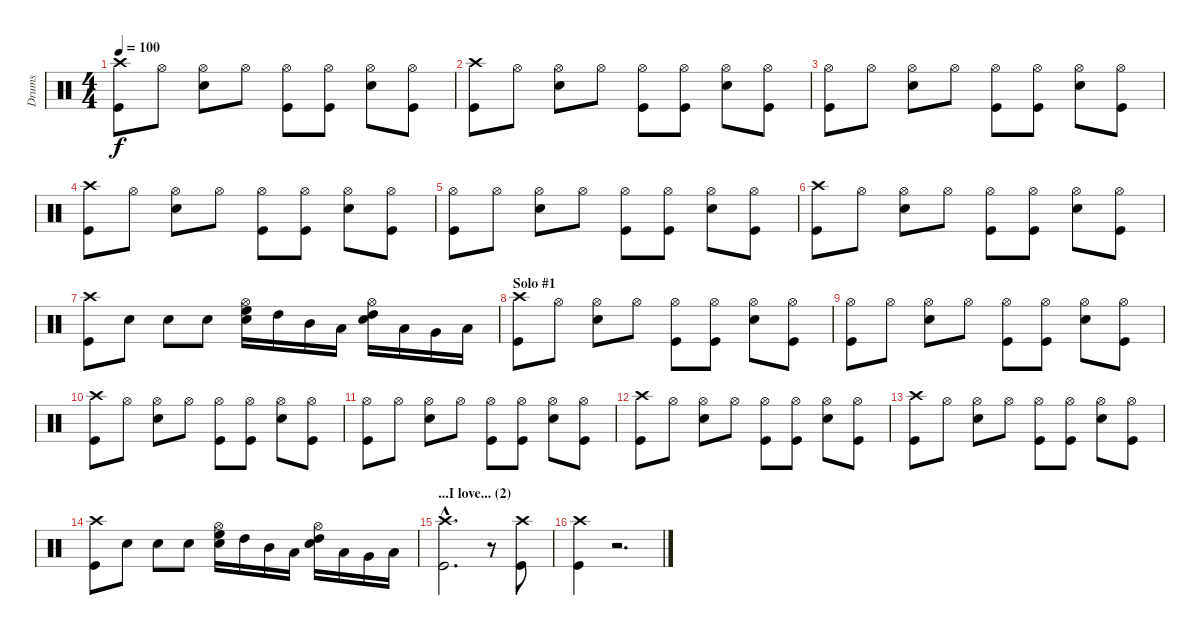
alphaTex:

\track ("Drums" "Drums") {instrument percussion}
\staff {score}
\articulation defaults
\ts (4 4)
\tempo 100
\clef neutral
\ks c
("Crash high (hit)" "Kick (hit)").8{dy f} "Hi-Hat (open)".8 ("Hi-Hat (open)" "Snare (hit) 2").8 "Hi-Hat (open)".8 ("Hi-Hat (open)" "Kick (hit)").8 ("Hi-Hat (open)" "Kick (hit)").8 ("Hi-Hat (open)" "Snare (hit) 2").8 ("Hi-Hat (open)" "Kick (hit)").8 |
("Crash high (hit)" "Kick (hit)").8 "Hi-Hat (open)".8 ("Hi-Hat (open)" "Snare (hit) 2").8 "Hi-Hat (open)".8 ("Hi-Hat (open)" "Kick (hit)").8 ("Hi-Hat (open)" "Kick (hit)").8 ("Hi-Hat (open)" "Snare (hit) 2").8 ("Hi-Hat (open)" "Kick (hit)").8 |
("Hi-Hat (open)" "Kick (hit)").8 "Hi-Hat (open)".8 ("Hi-Hat (open)" "Snare (hit) 2").8 "Hi-Hat (open)".8 ("Hi-Hat (open)" "Kick (hit)").8 ("Hi-Hat (open)" "Kick (hit)").8 ("Hi-Hat (open)" "Snare (hit) 2").8 ("Hi-Hat (open)" "Kick (hit)").8 |
("Crash high (hit)" "Kick (hit)").8 "Hi-Hat (open)".8 ("Hi-Hat (open)" "Snare (hit) 2").8 "Hi-Hat (open)".8 ("Hi-Hat (open)" "Kick (hit)").8 ("Hi-Hat (open)" "Kick (hit)").8 ("Hi-Hat (open)" "Snare (hit) 2").8 ("Hi-Hat (open)" "Kick (hit)").8 |
("Hi-Hat (open)" "Kick (hit)").8 "Hi-Hat (open)".8 ("Hi-Hat (open)" "Snare (hit) 2").8 "Hi-Hat (open)".8 ("Hi-Hat (open)" "Kick (hit)").8 ("Hi-Hat (open)" "Kick (hit)").8 ("Hi-Hat (open)" "Snare (hit) 2").8 ("Hi-Hat (open)" "Kick (hit)").8 |
("Crash high (hit)" "Kick (hit)").8 "Hi-Hat (open)".8 ("Hi-Hat (open)" "Snare (hit) 2").8 "Hi-Hat (open)".8 ("Hi-Hat (open)" "Kick (hit)").8 ("Hi-Hat (open)" "Kick (hit)").8 ("Hi-Hat (open)" "Snare (hit) 2").8 ("Hi-Hat (open)" "Kick (hit)").8 |
("Crash high (hit)" "Kick (hit)").8 "Snare (hit) 2".8 "Snare (hit) 2".8 "Snare (hit) 2".8 ("Hi-Hat (open)" "Snare (hit) 2" "High Floor Tom (hit)").16 "High Tom (hit)".16 "Mid Tom (hit)".16 "Low Tom (hit)".16 ("Hi-Hat (open)" "Snare (hit) 2" "High Tom (hit)").16 "Low Tom (hit)".16 "Very Low Tom (hit)".16 "Low Floor Tom (hit)".16 |
\section ("" "Solo #1")
("Crash high (hit)" "Kick (hit)").8 "Hi-Hat (open)".8 ("Hi-Hat (open)" "Snare (hit) 2").8 "Hi-Hat (open)".8 ("Hi-Hat (open)" "Kick (hit)").8 ("Hi-Hat (open)" "Kick (hit)").8 ("Hi-Hat (open)" "Snare (hit) 2").8 ("Hi-Hat (open)" "Kick (hit)").8 |
("Hi-Hat (open)" "Kick (hit)").8 "Hi-Hat (open)".8 ("Hi-Hat (open)" "Snare (hit) 2").8 "Hi-Hat (open)".8 ("Hi-Hat (open)" "Kick (hit)").8 ("Hi-Hat (open)" "Kick (hit)").8 ("Hi-Hat (open)" "Snare (hit) 2").8 ("Hi-Hat (open)" "Kick (hit)").8 |
("Crash high (hit)" "Kick (hit)").8 "Hi-Hat (open)".8 ("Hi-Hat (open)" "Snare (hit) 2").8 "Hi-Hat (open)".8 ("Hi-Hat (open)" "Kick (hit)").8 ("Hi-Hat (open)" "Kick (hit)").8 ("Hi-Hat (open)" "Snare (hit) 2").8 ("Hi-Hat (open)" "Kick (hit)").8 |
("Hi-Hat (open)" "Kick (hit)").8 "Hi-Hat (open)".8 ("Hi-Hat (open)" "Snare (hit) 2").8 "Hi-Hat (open)".8 ("Hi-Hat (open)" "Kick (hit)").8 ("Hi-Hat (open)" "Kick (hit)").8 ("Hi-Hat (open)" "Snare (hit) 2").8 ("Hi-Hat (open)" "Kick (hit)").8 |
("Crash high (hit)" "Kick (hit)").8 "Hi-Hat (open)".8 ("Hi-Hat (open)" "Snare (hit) 2").8 "Hi-Hat (open)".8 ("Hi-Hat (open)" "Kick (hit)").8 ("Hi-Hat (open)" "Kick (hit)").8 ("Hi-Hat (open)" "Snare (hit) 2").8 ("Hi-Hat (open)" "Kick (hit)").8 |
("Crash high (hit)" "Kick (hit)").8 "Hi-Hat (open)".8 ("Hi-Hat (open)" "Snare (hit) 2").8 "Hi-Hat (open)".8 ("Hi-Hat (open)" "Kick (hit)").8 ("Hi-Hat (open)" "Kick (hit)").8 ("Hi-Hat (open)" "Snare (hit) 2").8 ("Hi-Hat (open)" "Kick (hit)").8 |
("Crash high (hit)" "Kick (hit)").8 "Snare (hit) 2".8 "Snare (hit) 2".8 "Snare (hit) 2".8 ("Hi-Hat (open)" "Snare (hit) 2" "High Floor Tom (hit)").16 "High Tom (hit)".16 "Mid Tom (hit)".16 "Low Tom (hit)".16 ("Hi-Hat (open)" "Snare (hit) 2" "High Tom (hit)").16 "Low Tom (hit)".16 "Very Low Tom (hit)".16 "Low Floor Tom (hit)".16 |
\section ("" "...I love... (2)")
("Crash high (hit)"{hac} "Kick (hit)"{hac}).2{d} r.8 ("Crash high (hit)" "Kick (hit)").8 |
("Crash high (hit)" "Kick (hit)").4 r.2{d}
